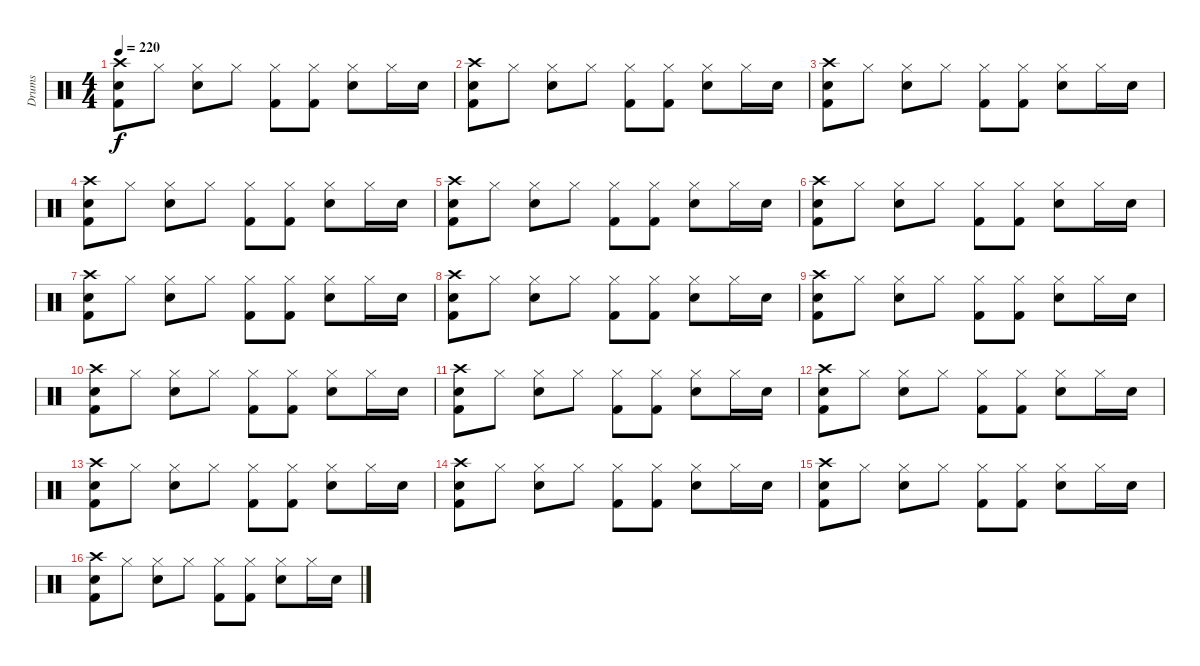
\track ("Drums" "Drums") {instrument percussion}
\staff {score}
\articulation defaults
\ts (4 4)
\tempo 220
\clef neutral
\ks c
("Crash high (hit)" "Snare (hit) 2" "Kick (hit) 2").8{dy f} "Hi-Hat (closed)".8 ("Hi-Hat (closed)" "Snare (hit) 2").8 "Hi-Hat (closed)".8 ("Hi-Hat (closed)" "Kick (hit) 2").8 ("Hi-Hat (closed)" "Kick (hit) 2").8 ("Hi-Hat (closed)" "Snare (hit) 2").8 "Hi-Hat (closed)".16 "Snare (hit) 2".16 |
("Crash high (hit)" "Snare (hit) 2" "Kick (hit) 2").8 "Hi-Hat (closed)".8 ("Hi-Hat (closed)" "Snare (hit) 2").8 "Hi-Hat (closed)".8 ("Hi-Hat (closed)" "Kick (hit) 2").8 ("Hi-Hat (closed)" "Kick (hit) 2").8 ("Hi-Hat (closed)" "Snare (hit) 2").8 "Hi-Hat (closed)".16 "Snare (hit) 2".16 |
("Crash high (hit)" "Snare (hit) 2" "Kick (hit) 2").8 "Hi-Hat (closed)".8 ("Hi-Hat (closed)" "Snare (hit) 2").8 "Hi-Hat (closed)".8 ("Hi-Hat (closed)" "Kick (hit) 2").8 ("Hi-Hat (closed)" "Kick (hit) 2").8 ("Hi-Hat (closed)" "Snare (hit) 2").8 "Hi-Hat (closed)".16 "Snare (hit) 2".16 |
("Crash high (hit)" "Snare (hit) 2" "Kick (hit) 2").8 "Hi-Hat (closed)".8 ("Hi-Hat (closed)" "Snare (hit) 2").8 "Hi-Hat (closed)".8 ("Hi-Hat (closed)" "Kick (hit) 2").8 ("Hi-Hat (closed)" "Kick (hit) 2").8 ("Hi-Hat (closed)" "Snare (hit) 2").8 "Hi-Hat (closed)".16 "Snare (hit) 2".16 |
("Crash high (hit)" "Snare (hit) 2" "Kick (hit) 2").8 "Hi-Hat (closed)".8 ("Hi-Hat (closed)" "Snare (hit) 2").8 "Hi-Hat (closed)".8 ("Hi-Hat (closed)" "Kick (hit) 2").8 ("Hi-Hat (closed)" "Kick (hit) 2").8 ("Hi-Hat (closed)" "Snare (hit) 2").8 "Hi-Hat (closed)".16 "Snare (hit) 2".16 |
("Crash high (hit)" "Snare (hit) 2" "Kick (hit) 2").8 "Hi-Hat (closed)".8 ("Hi-Hat (closed)" "Snare (hit) 2").8 "Hi-Hat (closed)".8 ("Hi-Hat (closed)" "Kick (hit) 2").8 ("Hi-Hat (closed)" "Kick (hit) 2").8 ("Hi-Hat (closed)" "Snare (hit) 2").8 "Hi-Hat (closed)".16 "Snare (hit) 2".16 |
("Crash high (hit)" "Snare (hit) 2" "Kick (hit) 2").8 "Hi-Hat (closed)".8 ("Hi-Hat (closed)" "Snare (hit) 2").8 "Hi-Hat (closed)".8 ("Hi-Hat (closed)" "Kick (hit) 2").8 ("Hi-Hat (closed)" "Kick (hit) 2").8 ("Hi-Hat (closed)" "Snare (hit) 2").8 "Hi-Hat (closed)".16 "Snare (hit) 2".16 |
("Crash high (hit)" "Snare (hit) 2" "Kick (hit) 2").8 "Hi-Hat (closed)".8 ("Hi-Hat (closed)" "Snare (hit) 2").8 "Hi-Hat (closed)".8 ("Hi-Hat (closed)" "Kick (hit) 2").8 ("Hi-Hat (closed)" "Kick (hit) 2").8 ("Hi-Hat (closed)" "Snare (hit) 2").8 "Hi-Hat (closed)".16 "Snare (hit) 2".16 |
("Crash high (hit)" "Snare (hit) 2" "Kick (hit) 2").8 "Hi-Hat (closed)".8 ("Hi-Hat (closed)" "Snare (hit) 2").8 "Hi-Hat (closed)".8 ("Hi-Hat (closed)" "Kick (hit) 2").8 ("Hi-Hat (closed)" "Kick (hit) 2").8 ("Hi-Hat (closed)" "Snare (hit) 2").8 "Hi-Hat (closed)".16 "Snare (hit) 2".16 |
("Crash high (hit)" "Snare (hit) 2" "Kick (hit) 2").8 "Hi-Hat (closed)".8 ("Hi-Hat (closed)" "Snare (hit) 2").8 "Hi-Hat (closed)".8 ("Hi-Hat (closed)" "Kick (hit) 2").8 ("Hi-Hat (closed)" "Kick (hit) 2").8 ("Hi-Hat (closed)" "Snare (hit) 2").8 "Hi-Hat (closed)".16 "Snare (hit) 2".16 |
("Crash high (hit)" "Snare (hit) 2" "Kick (hit) 2").8 "Hi-Hat (closed)".8 ("Hi-Hat (closed)" "Snare (hit) 2").8 "Hi-Hat (closed)".8 ("Hi-Hat (closed)" "Kick (hit) 2").8 ("Hi-Hat (closed)" "Kick (hit) 2").8 ("Hi-Hat (closed)" "Snare (hit) 2").8 "Hi-Hat (closed)".16 "Snare (hit) 2".16 |
("Crash high (hit)" "Snare (hit) 2" "Kick (hit) 2").8 "Hi-Hat (closed)".8 ("Hi-Hat (closed)" "Snare (hit) 2").8 "Hi-Hat (closed)".8 ("Hi-Hat (closed)" "Kick (hit) 2").8 ("Hi-Hat (closed)" "Kick (hit) 2").8 ("Hi-Hat (closed)" "Snare (hit) 2").8 "Hi-Hat (closed)".16 "Snare (hit) 2".16 |
("Crash high (hit)" "Snare (hit) 2" "Kick (hit) 2").8 "Hi-Hat (closed)".8 ("Hi-Hat (closed)" "Snare (hit) 2").8 "Hi-Hat (closed)".8 ("Hi-Hat (closed)" "Kick (hit) 2").8 ("Hi-Hat (closed)" "Kick (hit) 2").8 ("Hi-Hat (closed)" "Snare (hit) 2").8 "Hi-Hat (closed)".16 "Snare (hit) 2".16 |
("Crash high (hit)" "Snare (hit) 2" "Kick (hit) 2").8 "Hi-Hat (closed)".8 ("Hi-Hat (closed)" "Snare (hit) 2").8 "Hi-Hat (closed)".8 ("Hi-Hat (closed)" "Kick (hit) 2").8 ("Hi-Hat (closed)" "Kick (hit) 2").8 ("Hi-Hat (closed)" "Snare (hit) 2").8 "Hi-Hat (closed)".16 "Snare (hit) 2".16 |
("Crash high (hit)" "Snare (hit) 2" "Kick (hit) 2").8 "Hi-Hat (closed)".8 ("Hi-Hat (closed)" "Snare (hit) 2").8 "Hi-Hat (closed)".8 ("Hi-Hat (closed)" "Kick (hit) 2").8 ("Hi-Hat (closed)" "Kick (hit) 2").8 ("Hi-Hat (closed)" "Snare (hit) 2").8 "Hi-Hat (closed)".16 "Snare (hit) 2".16 |
("Crash high (hit)" "Snare (hit) 2" "Kick (hit) 2").8 "Hi-Hat (closed)".8 ("Hi-Hat (closed)" "Snare (hit) 2").8 "Hi-Hat (closed)".8 ("Hi-Hat (closed)" "Kick (hit) 2").8 ("Hi-Hat (closed)" "Kick (hit) 2").8 ("Hi-Hat (closed)" "Snare (hit) 2").8 "Hi-Hat (closed)".16 "Snare (hit) 2".16
